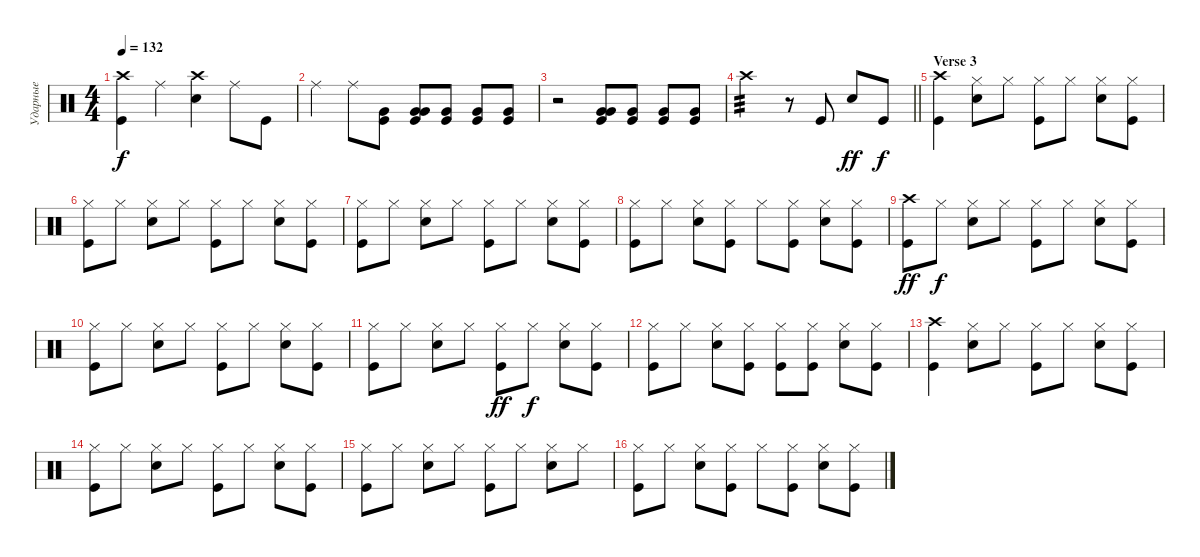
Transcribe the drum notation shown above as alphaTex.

\track ("Ударные" "Ударные") {instrument percussion}
\staff {score}
\articulation defaults
\ts (4 4)
\tempo 132
\clef neutral
\ks c
("Kick (hit)" "Crash high (hit)").4{dy f} "Ride (middle)".4 ("Crash high (hit)" "Snare (hit) 2").4 "Ride (middle)".8 "Kick (hit)".8 |
"Ride (middle)".4 "Ride (middle)".8 ("Kick (hit)" "Very Low Tom (hit)").8 ("Kick (hit)" "Very Low Tom (hit)" "Very Low Tom (hit)").8{bd 240} ("Kick (hit)" "Very Low Tom (hit)").8 ("Kick (hit)" "Very Low Tom (hit)").8 ("Kick (hit)" "Very Low Tom (hit)").8 |
r.2 ("Kick (hit)" "Very Low Tom (hit)" "Very Low Tom (hit)").8{bd 240} ("Kick (hit)" "Very Low Tom (hit)").8 ("Kick (hit)" "Very Low Tom (hit)").8 ("Kick (hit)" "Very Low Tom (hit)").8{volume 0} |
\barLineRight lightlight "Crash high (hit)".2{tp 3 volume 14}
r.8 "Kick (hit)".8 "Snare (hit) 2".8{dy ff} "Kick (hit)".8{dy f} |
\section ("" "Verse 3")
("Kick (hit)" "Crash high (hit)").4 ("Snare (hit) 2" "Hi-Hat (closed)").8 "Hi-Hat (closed)".8 ("Kick (hit)" "Hi-Hat (closed)").8 "Hi-Hat (closed)".8 ("Snare (hit) 2" "Hi-Hat (closed)").8 ("Kick (hit)" "Hi-Hat (closed)").8 |
("Kick (hit)" "Hi-Hat (closed)").8 "Hi-Hat (closed)".8 ("Snare (hit) 2" "Hi-Hat (closed)").8 "Hi-Hat (closed)".8 ("Kick (hit)" "Hi-Hat (closed)").8 "Hi-Hat (closed)".8 ("Snare (hit) 2" "Hi-Hat (closed)").8 ("Kick (hit)" "Hi-Hat (closed)").8 |
("Kick (hit)" "Hi-Hat (closed)").8 "Hi-Hat (closed)".8 ("Snare (hit) 2" "Hi-Hat (closed)").8 "Hi-Hat (closed)".8 ("Kick (hit)" "Hi-Hat (closed)").8 "Hi-Hat (closed)".8 ("Snare (hit) 2" "Hi-Hat (closed)").8 ("Kick (hit)" "Hi-Hat (closed)").8 |
("Kick (hit)" "Hi-Hat (closed)").8 "Hi-Hat (closed)".8 ("Snare (hit) 2" "Hi-Hat (closed)").8 ("Hi-Hat (closed)" "Kick (hit)").8 "Hi-Hat (closed)".8 ("Hi-Hat (closed)" "Kick (hit)").8 ("Snare (hit) 2" "Hi-Hat (closed)").8 ("Kick (hit)" "Hi-Hat (closed)").8 |
("Kick (hit)" "Crash high (hit)").8{dy ff} "Hi-Hat (closed)".8{dy f} ("Snare (hit) 2" "Hi-Hat (closed)").8 "Hi-Hat (closed)".8 ("Kick (hit)" "Hi-Hat (closed)").8 "Hi-Hat (closed)".8 ("Snare (hit) 2" "Hi-Hat (closed)").8 ("Kick (hit)" "Hi-Hat (closed)").8 |
("Kick (hit)" "Hi-Hat (closed)").8 "Hi-Hat (closed)".8 ("Snare (hit) 2" "Hi-Hat (closed)").8 "Hi-Hat (closed)".8 ("Kick (hit)" "Hi-Hat (closed)").8 "Hi-Hat (closed)".8 ("Snare (hit) 2" "Hi-Hat (closed)").8 ("Kick (hit)" "Hi-Hat (closed)").8 |
("Kick (hit)" "Hi-Hat (closed)").8 "Hi-Hat (closed)".8 ("Snare (hit) 2" "Hi-Hat (closed)").8 "Hi-Hat (closed)".8 ("Kick (hit)" "Hi-Hat (closed)").8{dy ff} "Hi-Hat (closed)".8{dy f} ("Snare (hit) 2" "Hi-Hat (closed)").8 ("Kick (hit)" "Hi-Hat (closed)").8 |
("Kick (hit)" "Hi-Hat (closed)").8 "Hi-Hat (closed)".8 ("Snare (hit) 2" "Hi-Hat (closed)").8 ("Hi-Hat (closed)" "Kick (hit)").8 ("Kick (hit)" "Hi-Hat (closed)").8 ("Hi-Hat (closed)" "Kick (hit)").8 ("Snare (hit) 2" "Hi-Hat (closed)").8 ("Kick (hit)" "Hi-Hat (closed)").8 |
("Kick (hit)" "Crash high (hit)").4 ("Snare (hit) 2" "Hi-Hat (closed)").8 "Hi-Hat (closed)".8 ("Kick (hit)" "Hi-Hat (closed)").8 "Hi-Hat (closed)".8 ("Snare (hit) 2" "Hi-Hat (closed)").8 ("Kick (hit)" "Hi-Hat (closed)").8 |
("Kick (hit)" "Hi-Hat (closed)").8 "Hi-Hat (closed)".8 ("Snare (hit) 2" "Hi-Hat (closed)").8 "Hi-Hat (closed)".8 ("Kick (hit)" "Hi-Hat (closed)").8 "Hi-Hat (closed)".8 ("Snare (hit) 2" "Hi-Hat (closed)").8 ("Kick (hit)" "Hi-Hat (closed)").8 |
("Kick (hit)" "Hi-Hat (closed)").8 "Hi-Hat (closed)".8 ("Snare (hit) 2" "Hi-Hat (closed)").8 "Hi-Hat (closed)".8 ("Kick (hit)" "Hi-Hat (closed)").8 "Hi-Hat (closed)".8 ("Snare (hit) 2" "Hi-Hat (closed)").8 "Hi-Hat (closed)".8 |
("Kick (hit)" "Hi-Hat (closed)").8 "Hi-Hat (closed)".8 ("Snare (hit) 2" "Hi-Hat (closed)").8 ("Hi-Hat (closed)" "Kick (hit)").8 "Hi-Hat (closed)".8 ("Hi-Hat (closed)" "Kick (hit)").8 ("Snare (hit) 2" "Hi-Hat (closed)").8 ("Kick (hit)" "Hi-Hat (closed)").8
